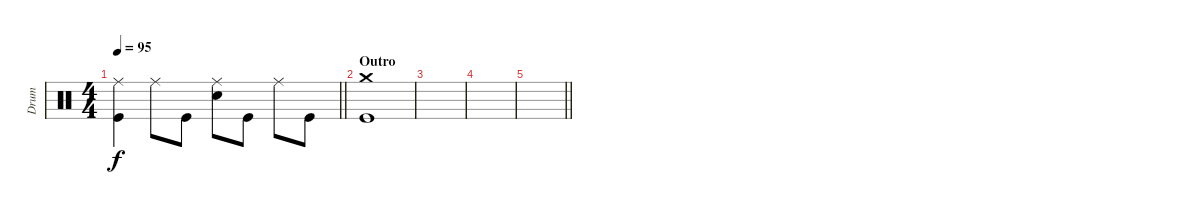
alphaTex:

\track ("Drum" "Drum") {instrument percussion}
\staff {score}
\articulation defaults
\ts (4 4)
\tempo 95
\clef neutral
\barLineRight lightlight
\ks c
("Ride (middle)" "Kick (hit)").4{dy f} "Ride (middle)".8 "Kick (hit)".8 ("Ride (middle)" "Electric Snare (hit)").8 "Kick (hit)".8 "Ride (middle)".8 "Kick (hit)".8 |
\section ("" "Outro")
("Crash medium (hit)" "Kick (hit)").1 |
|
|
\barLineRight lightlight
